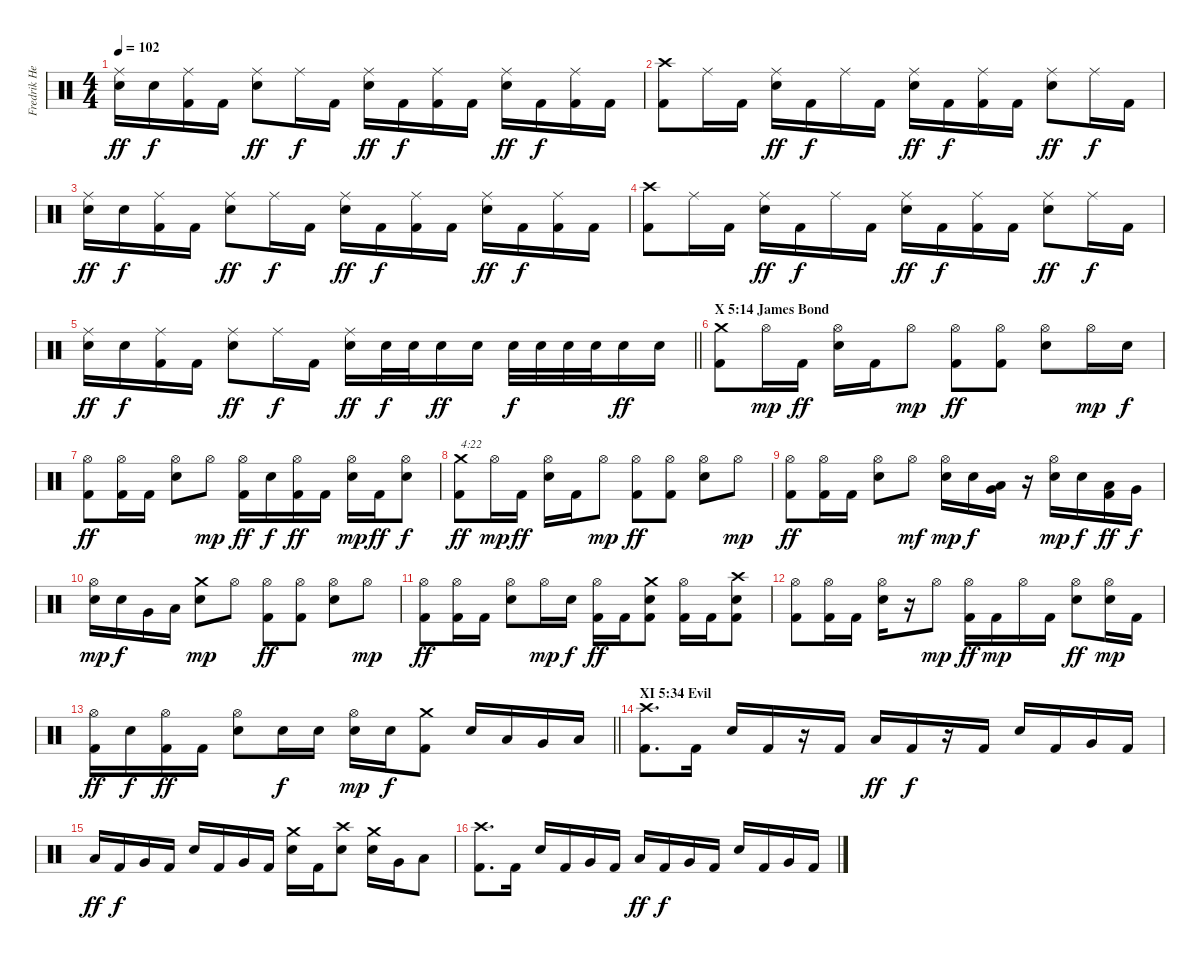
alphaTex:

\track ("Fredrik Hellerström (Drums)" "Fredrik He") {instrument percussion}
\staff
\articulation defaults
\ts (4 4)
\tempo 102
\clef neutral
\ks c
("Ride (middle)" "Electric Snare (hit)").16{dy ff} "Electric Snare (hit)".16{dy f} ("Ride (middle)" "Kick (hit) 2").16 "Kick (hit) 2".16 ("Ride (middle)" "Electric Snare (hit)").8{dy ff} "Ride (middle)".16{dy f} "Kick (hit) 2".16 ("Ride (middle)" "Electric Snare (hit)").16{dy ff} "Kick (hit) 2".16{dy f} ("Ride (middle)" "Kick (hit) 2").16 "Kick (hit) 2".16 ("Ride (middle)" "Electric Snare (hit)").16{dy ff} "Kick (hit) 2".16{dy f} ("Ride (middle)" "Kick (hit) 2").16 "Kick (hit) 2".16 |
("Crash high (hit)" "Kick (hit) 2").8 "Ride (middle)".16 "Kick (hit) 2".16 ("Ride (middle)" "Electric Snare (hit)").16{dy ff} "Kick (hit) 2".16{dy f} "Ride (middle)".16 "Kick (hit) 2".16 ("Ride (middle)" "Electric Snare (hit)").16{dy ff} "Kick (hit) 2".16{dy f} ("Ride (middle)" "Kick (hit) 2").16 "Kick (hit) 2".16 ("Ride (middle)" "Electric Snare (hit)").8{dy ff} "Ride (middle)".16{dy f} "Kick (hit) 2".16 |
("Ride (middle)" "Electric Snare (hit)").16{dy ff} "Electric Snare (hit)".16{dy f} ("Ride (middle)" "Kick (hit) 2").16 "Kick (hit) 2".16 ("Ride (middle)" "Electric Snare (hit)").8{dy ff} "Ride (middle)".16{dy f} "Kick (hit) 2".16 ("Ride (middle)" "Electric Snare (hit)").16{dy ff} "Kick (hit) 2".16{dy f} ("Ride (middle)" "Kick (hit) 2").16 "Kick (hit) 2".16 ("Ride (middle)" "Electric Snare (hit)").16{dy ff} "Kick (hit) 2".16{dy f} ("Ride (middle)" "Kick (hit) 2").16 "Kick (hit) 2".16 |
("Crash high (hit)" "Kick (hit) 2").8 "Ride (middle)".16 "Kick (hit) 2".16 ("Ride (middle)" "Electric Snare (hit)").16{dy ff} "Kick (hit) 2".16{dy f} "Ride (middle)".16 "Kick (hit) 2".16 ("Ride (middle)" "Electric Snare (hit)").16{dy ff} "Kick (hit) 2".16{dy f} ("Ride (middle)" "Kick (hit) 2").16 "Kick (hit) 2".16 ("Ride (middle)" "Electric Snare (hit)").8{dy ff} "Ride (middle)".16{dy f} "Kick (hit) 2".16 |
\barLineRight lightlight
("Ride (middle)" "Electric Snare (hit)").16{dy ff} "Electric Snare (hit)".16{dy f} ("Ride (middle)" "Kick (hit) 2").16 "Kick (hit) 2".16 ("Ride (middle)" "Electric Snare (hit)").8{dy ff} "Ride (middle)".16{dy f} "Kick (hit) 2".16 ("Ride (middle)" "Electric Snare (hit)").16{dy ff} "Electric Snare (hit)".32{dy f} "Electric Snare (hit)".32 "Electric Snare (hit)".16{dy ff} "Electric Snare (hit)".16 "Electric Snare (hit)".32{dy f} "Electric Snare (hit)".32 "Electric Snare (hit)".32 "Electric Snare (hit)".32 "Electric Snare (hit)".16{dy ff} "Electric Snare (hit)".16 |
\section ("" "X 5:14 James Bond")
("Crash medium (hit)" "Kick (hit) 2").8 "Hi-Hat (open)".16{dy mp} "Kick (hit) 2".16{dy ff} ("Hi-Hat (open)" "Electric Snare (hit)").16 "Kick (hit) 2".16 "Hi-Hat (open)".8{dy mp} ("Hi-Hat (open)" "Kick (hit) 2").8{dy ff} ("Hi-Hat (open)" "Kick (hit) 2").8 ("Hi-Hat (open)" "Electric Snare (hit)").8 "Hi-Hat (open)".16{dy mp} "Electric Snare (hit)".16{dy f} |
("Hi-Hat (open)" "Kick (hit) 2").8{dy ff} ("Hi-Hat (open)" "Kick (hit) 2").16 "Kick (hit) 2".16 ("Hi-Hat (open)" "Electric Snare (hit)").8 "Hi-Hat (open)".8{dy mp} ("Hi-Hat (open)" "Kick (hit) 2").16{dy ff} "Electric Snare (hit)".16{dy f} ("Hi-Hat (open)" "Kick (hit) 2").16{dy ff} "Kick (hit) 2".16 ("Hi-Hat (open)" "Electric Snare (hit)").16{dy mp} "Kick (hit) 2".16{dy ff} ("Hi-Hat (open)" "Electric Snare (hit)").8{dy f} |
("Crash medium (hit)" "Kick (hit) 2").8{txt "4:22" dy ff} "Hi-Hat (open)".16{dy mp} "Kick (hit) 2".16{dy ff} ("Hi-Hat (open)" "Electric Snare (hit)").16 "Kick (hit) 2".16 "Hi-Hat (open)".8{dy mp} ("Hi-Hat (open)" "Kick (hit) 2").8{dy ff} ("Hi-Hat (open)" "Kick (hit) 2").8 ("Hi-Hat (open)" "Electric Snare (hit)").8 "Hi-Hat (open)".8{dy mp} |
("Hi-Hat (open)" "Kick (hit) 2").8{dy ff} ("Hi-Hat (open)" "Kick (hit) 2").16 "Kick (hit) 2".16 ("Hi-Hat (open)" "Electric Snare (hit)").8 "Hi-Hat (open)".8{dy mf} ("Hi-Hat (open)" "Electric Snare (hit)").16{dy mp} "Electric Snare (hit)".16{dy f} ("Low Tom (hit)" "Very Low Tom (hit)").16 r.16 ("Hi-Hat (open)" "Electric Snare (hit)").16{dy mp} "Electric Snare (hit)".16{dy f} ("Low Tom (hit)" "Kick (hit) 2").16{dy ff} "Very Low Tom (hit)".16{dy f} |
("Hi-Hat (open)" "Electric Snare (hit)").16{dy mp} "Electric Snare (hit)".16{dy f} "Very Low Tom (hit)".16 "Low Floor Tom (hit)".16 ("Crash medium (hit)" "Electric Snare (hit)").8{dy mp} "Hi-Hat (open)".8 ("Hi-Hat (open)" "Kick (hit) 2").8{dy ff} ("Hi-Hat (open)" "Kick (hit) 2").8 ("Hi-Hat (open)" "Electric Snare (hit)").8 "Hi-Hat (open)".8{dy mp} |
("Hi-Hat (open)" "Kick (hit) 2").8{dy ff} ("Hi-Hat (open)" "Kick (hit) 2").16 "Kick (hit) 2".16 ("Hi-Hat (open)" "Electric Snare (hit)").8 "Hi-Hat (open)".16{dy mp} "Electric Snare (hit)".16{dy f} ("Hi-Hat (open)" "Kick (hit) 2").16{dy ff} "Kick (hit) 2".16 ("Crash medium (hit)" "Electric Snare (hit)" "Kick (hit) 2").8 ("Hi-Hat (open)" "Kick (hit) 2").16 "Kick (hit) 2".16 ("Crash high (hit)" "Electric Snare (hit)" "Kick (hit) 2").8 |
("Hi-Hat (open)" "Kick (hit) 2").8 ("Hi-Hat (open)" "Kick (hit) 2").16 "Kick (hit) 2".16 ("Hi-Hat (open)" "Electric Snare (hit)").16 r.16 "Hi-Hat (open)".8{dy mp} ("Hi-Hat (open)" "Kick (hit) 2").16{dy ff} "Kick (hit) 2".16{dy mp} "Hi-Hat (open)".16 "Kick (hit) 2".16 ("Hi-Hat (open)" "Electric Snare (hit)").8{dy ff} ("Hi-Hat (open)" "Electric Snare (hit)").16{dy mp} "Kick (hit) 2".16 |
\barLineRight lightlight
("Hi-Hat (open)" "Kick (hit) 2").16{dy ff} "Electric Snare (hit)".16{dy f} ("Hi-Hat (open)" "Kick (hit) 2").16{dy ff} "Kick (hit) 2".16 ("Hi-Hat (open)" "Electric Snare (hit)").8 "Electric Snare (hit)".16{dy f} "Electric Snare (hit)".16 ("Hi-Hat (open)" "Electric Snare (hit)").16{dy mp} "Electric Snare (hit)".16{dy f} ("Crash medium (hit)" "Kick (hit) 2").8 "Electric Snare (hit)".16 "Low Tom (hit)".16 "Very Low Tom (hit)".16 "Low Floor Tom (hit)".16 |
\section ("" "XI 5:34 Evil")
("Crash high (hit)" "Kick (hit) 2").8{d} "Kick (hit) 2".16 "Electric Snare (hit)".16 "Kick (hit) 2".16 r.16 "Kick (hit) 2".16 "Low Tom (hit)".16{dy ff} "Kick (hit) 2".16{dy f} r.16 "Kick (hit) 2".16 "Electric Snare (hit)".16 "Kick (hit) 2".16 "Very Low Tom (hit)".16 "Kick (hit) 2".16 |
"Low Tom (hit)".16{dy ff} "Kick (hit) 2".16{dy f} "Very Low Tom (hit)".16 "Kick (hit) 2".16 "Electric Snare (hit)".16 "Kick (hit) 2".16 "Very Low Tom (hit)".16 "Kick (hit) 2".16 ("Crash medium (hit)" "Electric Snare (hit)").16 "Kick (hit) 2".16 ("Crash high (hit)" "Electric Snare (hit)").8 ("Crash medium (hit)" "Electric Snare (hit)").16 "Very Low Tom (hit)".16 "Low Tom (hit)".8 |
("Crash high (hit)" "Kick (hit) 2").8{d} "Kick (hit) 2".16 "Electric Snare (hit)".16 "Kick (hit) 2".16 "Very Low Tom (hit)".16 "Kick (hit) 2".16 "Low Tom (hit)".16{dy ff} "Kick (hit) 2".16{dy f} "Very Low Tom (hit)".16 "Kick (hit) 2".16 "Electric Snare (hit)".16 "Kick (hit) 2".16 "Very Low Tom (hit)".16 "Kick (hit) 2".16
